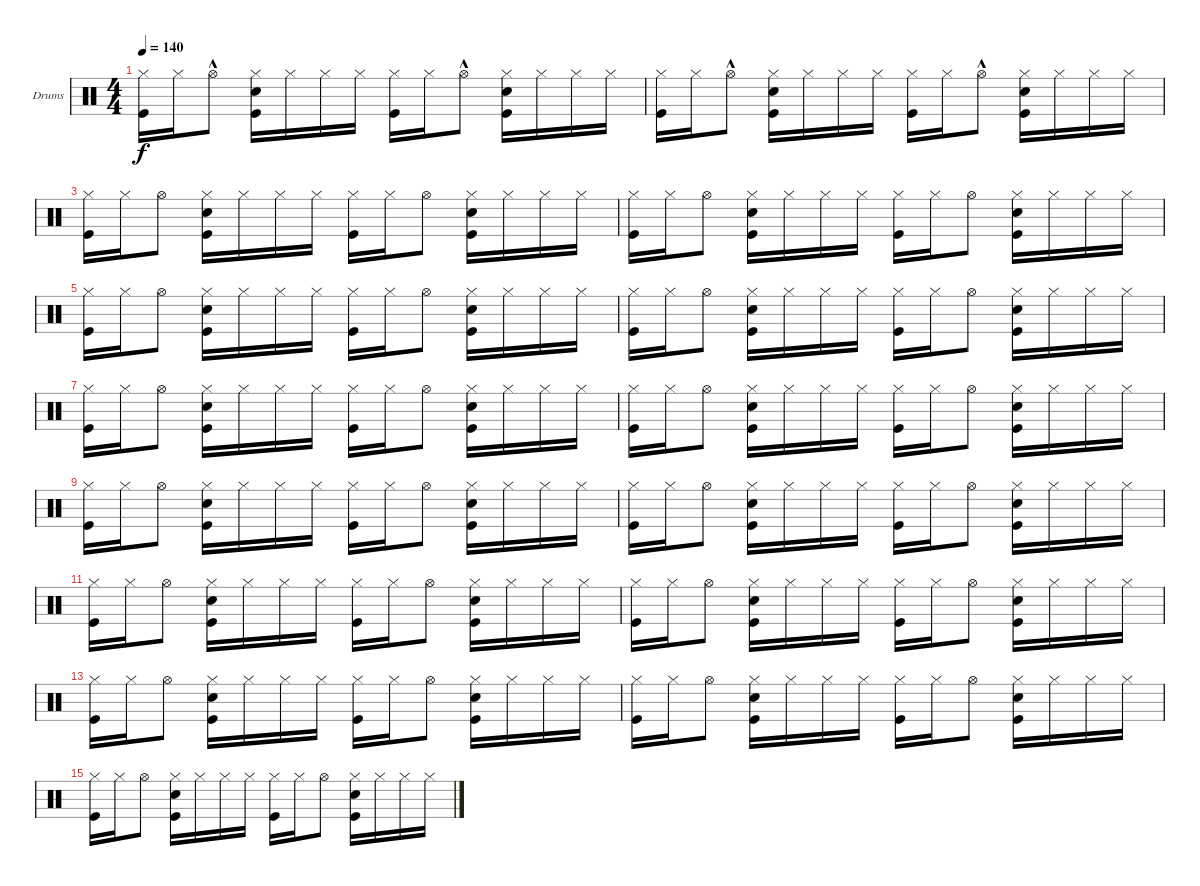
\bracketExtendMode nobrackets
\firstSystemTrackNameOrientation horizontal
\otherSystemsTrackNameOrientation horizontal
\defaultBarNumberDisplay FirstOfSystem
\track ("Drumkit" "Drums") {instrument percussion}
\staff {score}
\articulation defaults
\ts (4 4)
\tempo 140
\clef neutral
\ks c
("Hi-Hat (closed)" "Kick (hit)").16{dy f} "Hi-Hat (closed)".16 "Hi-Hat (open)"{hac}.8 ("Hi-Hat (closed)" "Kick (hit)" "Snare (hit) 2").16 "Hi-Hat (closed)".16 "Hi-Hat (closed)".16 "Hi-Hat (closed)".16 ("Hi-Hat (closed)" "Kick (hit)").16 "Hi-Hat (closed)".16 "Hi-Hat (open)"{hac}.8 ("Hi-Hat (closed)" "Kick (hit)" "Snare (hit) 2").16 "Hi-Hat (closed)".16 "Hi-Hat (closed)".16 "Hi-Hat (closed)".16 |
("Hi-Hat (closed)" "Kick (hit)").16 "Hi-Hat (closed)".16 "Hi-Hat (open)"{hac}.8 ("Hi-Hat (closed)" "Kick (hit)" "Snare (hit) 2").16 "Hi-Hat (closed)".16 "Hi-Hat (closed)".16 "Hi-Hat (closed)".16 ("Hi-Hat (closed)" "Kick (hit)").16 "Hi-Hat (closed)".16 "Hi-Hat (open)"{hac}.8 ("Hi-Hat (closed)" "Kick (hit)" "Snare (hit) 2").16 "Hi-Hat (closed)".16 "Hi-Hat (closed)".16 "Hi-Hat (closed)".16 |
("Hi-Hat (closed)" "Kick (hit)").16 "Hi-Hat (closed)".16 "Hi-Hat (open)".8 ("Hi-Hat (closed)" "Kick (hit)" "Snare (hit) 2").16 "Hi-Hat (closed)".16 "Hi-Hat (closed)".16 "Hi-Hat (closed)".16 ("Hi-Hat (closed)" "Kick (hit)").16 "Hi-Hat (closed)".16 "Hi-Hat (open)".8 ("Hi-Hat (closed)" "Kick (hit)" "Snare (hit) 2").16 "Hi-Hat (closed)".16 "Hi-Hat (closed)".16 "Hi-Hat (closed)".16 |
("Hi-Hat (closed)" "Kick (hit)").16 "Hi-Hat (closed)".16 "Hi-Hat (open)".8 ("Hi-Hat (closed)" "Kick (hit)" "Snare (hit) 2").16 "Hi-Hat (closed)".16 "Hi-Hat (closed)".16 "Hi-Hat (closed)".16 ("Hi-Hat (closed)" "Kick (hit)").16 "Hi-Hat (closed)".16 "Hi-Hat (open)".8 ("Hi-Hat (closed)" "Kick (hit)" "Snare (hit) 2").16 "Hi-Hat (closed)".16 "Hi-Hat (closed)".16 "Hi-Hat (closed)".16 |
("Hi-Hat (closed)" "Kick (hit)").16 "Hi-Hat (closed)".16 "Hi-Hat (open)".8 ("Hi-Hat (closed)" "Kick (hit)" "Snare (hit) 2").16 "Hi-Hat (closed)".16 "Hi-Hat (closed)".16 "Hi-Hat (closed)".16 ("Hi-Hat (closed)" "Kick (hit)").16 "Hi-Hat (closed)".16 "Hi-Hat (open)".8 ("Hi-Hat (closed)" "Kick (hit)" "Snare (hit) 2").16 "Hi-Hat (closed)".16 "Hi-Hat (closed)".16 "Hi-Hat (closed)".16 |
("Hi-Hat (closed)" "Kick (hit)").16 "Hi-Hat (closed)".16 "Hi-Hat (open)".8 ("Hi-Hat (closed)" "Kick (hit)" "Snare (hit) 2").16 "Hi-Hat (closed)".16 "Hi-Hat (closed)".16 "Hi-Hat (closed)".16 ("Hi-Hat (closed)" "Kick (hit)").16 "Hi-Hat (closed)".16 "Hi-Hat (open)".8 ("Hi-Hat (closed)" "Kick (hit)" "Snare (hit) 2").16 "Hi-Hat (closed)".16 "Hi-Hat (closed)".16 "Hi-Hat (closed)".16 |
("Hi-Hat (closed)" "Kick (hit)").16 "Hi-Hat (closed)".16 "Hi-Hat (open)".8 ("Hi-Hat (closed)" "Kick (hit)" "Snare (hit) 2").16 "Hi-Hat (closed)".16 "Hi-Hat (closed)".16 "Hi-Hat (closed)".16 ("Hi-Hat (closed)" "Kick (hit)").16 "Hi-Hat (closed)".16 "Hi-Hat (open)".8 ("Hi-Hat (closed)" "Kick (hit)" "Snare (hit) 2").16 "Hi-Hat (closed)".16 "Hi-Hat (closed)".16 "Hi-Hat (closed)".16 |
("Hi-Hat (closed)" "Kick (hit)").16 "Hi-Hat (closed)".16 "Hi-Hat (open)".8 ("Hi-Hat (closed)" "Kick (hit)" "Snare (hit) 2").16 "Hi-Hat (closed)".16 "Hi-Hat (closed)".16 "Hi-Hat (closed)".16 ("Hi-Hat (closed)" "Kick (hit)").16 "Hi-Hat (closed)".16 "Hi-Hat (open)".8 ("Hi-Hat (closed)" "Kick (hit)" "Snare (hit) 2").16 "Hi-Hat (closed)".16 "Hi-Hat (closed)".16 "Hi-Hat (closed)".16 |
("Hi-Hat (closed)" "Kick (hit)").16 "Hi-Hat (closed)".16 "Hi-Hat (open)".8 ("Hi-Hat (closed)" "Kick (hit)" "Snare (hit) 2").16 "Hi-Hat (closed)".16 "Hi-Hat (closed)".16 "Hi-Hat (closed)".16 ("Hi-Hat (closed)" "Kick (hit)").16 "Hi-Hat (closed)".16 "Hi-Hat (open)".8 ("Hi-Hat (closed)" "Kick (hit)" "Snare (hit) 2").16 "Hi-Hat (closed)".16 "Hi-Hat (closed)".16 "Hi-Hat (closed)".16 |
("Hi-Hat (closed)" "Kick (hit)").16 "Hi-Hat (closed)".16 "Hi-Hat (open)".8 ("Hi-Hat (closed)" "Kick (hit)" "Snare (hit) 2").16 "Hi-Hat (closed)".16 "Hi-Hat (closed)".16 "Hi-Hat (closed)".16 ("Hi-Hat (closed)" "Kick (hit)").16 "Hi-Hat (closed)".16 "Hi-Hat (open)".8 ("Hi-Hat (closed)" "Kick (hit)" "Snare (hit) 2").16 "Hi-Hat (closed)".16 "Hi-Hat (closed)".16 "Hi-Hat (closed)".16 |
("Hi-Hat (closed)" "Kick (hit)").16 "Hi-Hat (closed)".16 "Hi-Hat (open)".8 ("Hi-Hat (closed)" "Kick (hit)" "Snare (hit) 2").16 "Hi-Hat (closed)".16 "Hi-Hat (closed)".16 "Hi-Hat (closed)".16 ("Hi-Hat (closed)" "Kick (hit)").16 "Hi-Hat (closed)".16 "Hi-Hat (open)".8 ("Hi-Hat (closed)" "Kick (hit)" "Snare (hit) 2").16 "Hi-Hat (closed)".16 "Hi-Hat (closed)".16 "Hi-Hat (closed)".16 |
("Hi-Hat (closed)" "Kick (hit)").16 "Hi-Hat (closed)".16 "Hi-Hat (open)".8 ("Hi-Hat (closed)" "Kick (hit)" "Snare (hit) 2").16 "Hi-Hat (closed)".16 "Hi-Hat (closed)".16 "Hi-Hat (closed)".16 ("Hi-Hat (closed)" "Kick (hit)").16 "Hi-Hat (closed)".16 "Hi-Hat (open)".8 ("Hi-Hat (closed)" "Kick (hit)" "Snare (hit) 2").16 "Hi-Hat (closed)".16 "Hi-Hat (closed)".16 "Hi-Hat (closed)".16 |
("Hi-Hat (closed)" "Kick (hit)").16 "Hi-Hat (closed)".16 "Hi-Hat (open)".8 ("Hi-Hat (closed)" "Kick (hit)" "Snare (hit) 2").16 "Hi-Hat (closed)".16 "Hi-Hat (closed)".16 "Hi-Hat (closed)".16 ("Hi-Hat (closed)" "Kick (hit)").16 "Hi-Hat (closed)".16 "Hi-Hat (open)".8 ("Hi-Hat (closed)" "Kick (hit)" "Snare (hit) 2").16 "Hi-Hat (closed)".16 "Hi-Hat (closed)".16 "Hi-Hat (closed)".16 |
("Hi-Hat (closed)" "Kick (hit)").16 "Hi-Hat (closed)".16 "Hi-Hat (open)".8 ("Hi-Hat (closed)" "Kick (hit)" "Snare (hit) 2").16 "Hi-Hat (closed)".16 "Hi-Hat (closed)".16 "Hi-Hat (closed)".16 ("Hi-Hat (closed)" "Kick (hit)").16 "Hi-Hat (closed)".16 "Hi-Hat (open)".8 ("Hi-Hat (closed)" "Kick (hit)" "Snare (hit) 2").16 "Hi-Hat (closed)".16 "Hi-Hat (closed)".16 "Hi-Hat (closed)".16 |
("Hi-Hat (closed)" "Kick (hit)").16 "Hi-Hat (closed)".16 "Hi-Hat (open)".8 ("Hi-Hat (closed)" "Kick (hit)" "Snare (hit) 2").16 "Hi-Hat (closed)".16 "Hi-Hat (closed)".16 "Hi-Hat (closed)".16 ("Hi-Hat (closed)" "Kick (hit)").16 "Hi-Hat (closed)".16 "Hi-Hat (open)".8 ("Hi-Hat (closed)" "Kick (hit)" "Snare (hit) 2").16 "Hi-Hat (closed)".16 "Hi-Hat (closed)".16 "Hi-Hat (closed)".16
